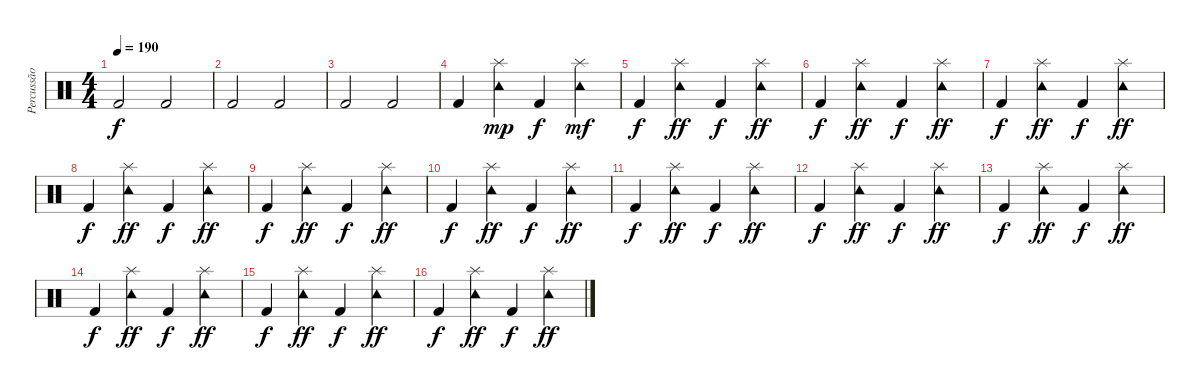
\track ("Percussão" "Percussão") {instrument percussion}
\staff {score}
\articulation defaults
\ts (4 4)
\tempo 190
\clef neutral
\ks c "Kick (hit) 2".2{dy f} "Kick (hit) 2".2
|
"Kick (hit) 2".2 "Kick (hit) 2".2 |
"Kick (hit) 2".2 "Kick (hit) 2".2 |
"Kick (hit) 2".4 ("Tambourine (hit)" "Splash (hit)").4{dy mp} "Kick (hit) 2".4{dy f} ("Tambourine (hit)" "Splash (hit)").4{dy mf} |
"Kick (hit) 2".4{dy f} ("Splash (hit)" "Tambourine (hit)").4{dy ff} "Kick (hit) 2".4{dy f} ("Splash (hit)" "Tambourine (hit)").4{dy ff} |
"Kick (hit) 2".4{dy f} ("Splash (hit)" "Tambourine (hit)").4{dy ff} "Kick (hit) 2".4{dy f} ("Splash (hit)" "Tambourine (hit)").4{dy ff} |
"Kick (hit) 2".4{dy f} ("Splash (hit)" "Tambourine (hit)").4{dy ff} "Kick (hit) 2".4{dy f} ("Splash (hit)" "Tambourine (hit)").4{dy ff} |
"Kick (hit) 2".4{dy f} ("Splash (hit)" "Tambourine (hit)").4{dy ff} "Kick (hit) 2".4{dy f} ("Splash (hit)" "Tambourine (hit)").4{dy ff} |
"Kick (hit) 2".4{dy f} ("Splash (hit)" "Tambourine (hit)").4{dy ff} "Kick (hit) 2".4{dy f} ("Splash (hit)" "Tambourine (hit)").4{dy ff} |
"Kick (hit) 2".4{dy f} ("Splash (hit)" "Tambourine (hit)").4{dy ff} "Kick (hit) 2".4{dy f} ("Splash (hit)" "Tambourine (hit)").4{dy ff} |
"Kick (hit) 2".4{dy f} ("Splash (hit)" "Tambourine (hit)").4{dy ff} "Kick (hit) 2".4{dy f} ("Splash (hit)" "Tambourine (hit)").4{dy ff} |
"Kick (hit) 2".4{dy f} ("Splash (hit)" "Tambourine (hit)").4{dy ff} "Kick (hit) 2".4{dy f} ("Splash (hit)" "Tambourine (hit)").4{dy ff} |
"Kick (hit) 2".4{dy f} ("Splash (hit)" "Tambourine (hit)").4{dy ff} "Kick (hit) 2".4{dy f} ("Splash (hit)" "Tambourine (hit)").4{dy ff} |
"Kick (hit) 2".4{dy f} ("Splash (hit)" "Tambourine (hit)").4{dy ff} "Kick (hit) 2".4{dy f} ("Splash (hit)" "Tambourine (hit)").4{dy ff} |
"Kick (hit) 2".4{dy f} ("Splash (hit)" "Tambourine (hit)").4{dy ff} "Kick (hit) 2".4{dy f} ("Splash (hit)" "Tambourine (hit)").4{dy ff} |
"Kick (hit) 2".4{dy f} ("Splash (hit)" "Tambourine (hit)").4{dy ff} "Kick (hit) 2".4{dy f} ("Splash (hit)" "Tambourine (hit)").4{dy ff}
